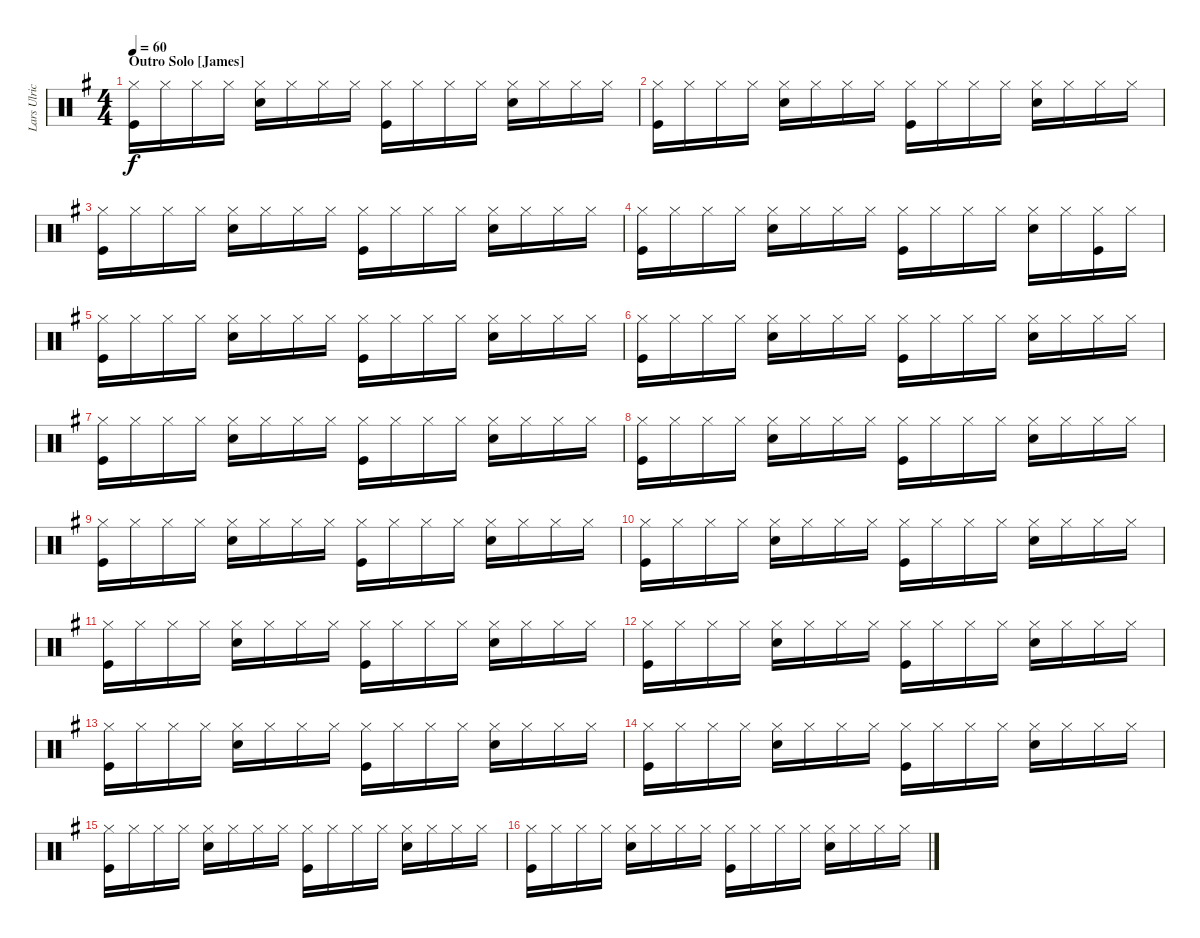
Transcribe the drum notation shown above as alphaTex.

\track ("Lars Ulrich [Drums]" "Lars Ulric") {instrument percussion}
\staff {score}
\articulation defaults
\ts (4 4)
\section ("" "Outro Solo [James]")
\tempo 60
\clef neutral
\ks g
("Kick (hit)" "Hi-Hat (closed)").16{dy f} "Hi-Hat (closed)".16 "Hi-Hat (closed)".16 "Hi-Hat (closed)".16 ("Electric Snare (hit)" "Hi-Hat (closed)").16 "Hi-Hat (closed)".16 "Hi-Hat (closed)".16 "Hi-Hat (closed)".16 ("Kick (hit)" "Hi-Hat (closed)").16 "Hi-Hat (closed)".16 "Hi-Hat (closed)".16 "Hi-Hat (closed)".16 ("Electric Snare (hit)" "Hi-Hat (closed)").16 "Hi-Hat (closed)".16 "Hi-Hat (closed)".16 "Hi-Hat (closed)".16 |
("Kick (hit)" "Hi-Hat (closed)").16 "Hi-Hat (closed)".16 "Hi-Hat (closed)".16 "Hi-Hat (closed)".16 ("Electric Snare (hit)" "Hi-Hat (closed)").16 "Hi-Hat (closed)".16 "Hi-Hat (closed)".16 "Hi-Hat (closed)".16 ("Kick (hit)" "Hi-Hat (closed)").16 "Hi-Hat (closed)".16 "Hi-Hat (closed)".16 "Hi-Hat (closed)".16 ("Electric Snare (hit)" "Hi-Hat (closed)").16 "Hi-Hat (closed)".16 "Hi-Hat (closed)".16 "Hi-Hat (closed)".16 |
("Kick (hit)" "Hi-Hat (closed)").16 "Hi-Hat (closed)".16 "Hi-Hat (closed)".16 "Hi-Hat (closed)".16 ("Electric Snare (hit)" "Hi-Hat (closed)").16 "Hi-Hat (closed)".16 "Hi-Hat (closed)".16 "Hi-Hat (closed)".16 ("Kick (hit)" "Hi-Hat (closed)").16 "Hi-Hat (closed)".16 "Hi-Hat (closed)".16 "Hi-Hat (closed)".16 ("Electric Snare (hit)" "Hi-Hat (closed)").16 "Hi-Hat (closed)".16 "Hi-Hat (closed)".16 "Hi-Hat (closed)".16 |
("Kick (hit)" "Hi-Hat (closed)").16 "Hi-Hat (closed)".16 "Hi-Hat (closed)".16 "Hi-Hat (closed)".16 ("Electric Snare (hit)" "Hi-Hat (closed)").16 "Hi-Hat (closed)".16 "Hi-Hat (closed)".16 "Hi-Hat (closed)".16 ("Kick (hit)" "Hi-Hat (closed)").16 "Hi-Hat (closed)".16 "Hi-Hat (closed)".16 "Hi-Hat (closed)".16 ("Electric Snare (hit)" "Hi-Hat (closed)").16 "Hi-Hat (closed)".16 ("Kick (hit)" "Hi-Hat (closed)").16 "Hi-Hat (closed)".16 |
("Kick (hit)" "Hi-Hat (closed)").16 "Hi-Hat (closed)".16 "Hi-Hat (closed)".16 "Hi-Hat (closed)".16 ("Electric Snare (hit)" "Hi-Hat (closed)").16 "Hi-Hat (closed)".16 "Hi-Hat (closed)".16 "Hi-Hat (closed)".16 ("Kick (hit)" "Hi-Hat (closed)").16 "Hi-Hat (closed)".16 "Hi-Hat (closed)".16 "Hi-Hat (closed)".16 ("Electric Snare (hit)" "Hi-Hat (closed)").16 "Hi-Hat (closed)".16 "Hi-Hat (closed)".16 "Hi-Hat (closed)".16 |
("Kick (hit)" "Hi-Hat (closed)").16 "Hi-Hat (closed)".16 "Hi-Hat (closed)".16 "Hi-Hat (closed)".16 ("Electric Snare (hit)" "Hi-Hat (closed)").16 "Hi-Hat (closed)".16 "Hi-Hat (closed)".16 "Hi-Hat (closed)".16 ("Kick (hit)" "Hi-Hat (closed)").16 "Hi-Hat (closed)".16 "Hi-Hat (closed)".16 "Hi-Hat (closed)".16 ("Electric Snare (hit)" "Hi-Hat (closed)").16 "Hi-Hat (closed)".16 "Hi-Hat (closed)".16 "Hi-Hat (closed)".16 |
("Kick (hit)" "Hi-Hat (closed)").16 "Hi-Hat (closed)".16 "Hi-Hat (closed)".16 "Hi-Hat (closed)".16 ("Electric Snare (hit)" "Hi-Hat (closed)").16 "Hi-Hat (closed)".16 "Hi-Hat (closed)".16 "Hi-Hat (closed)".16 ("Kick (hit)" "Hi-Hat (closed)").16 "Hi-Hat (closed)".16 "Hi-Hat (closed)".16 "Hi-Hat (closed)".16 ("Electric Snare (hit)" "Hi-Hat (closed)").16 "Hi-Hat (closed)".16 "Hi-Hat (closed)".16 "Hi-Hat (closed)".16 |
("Kick (hit)" "Hi-Hat (closed)").16 "Hi-Hat (closed)".16 "Hi-Hat (closed)".16 "Hi-Hat (closed)".16 ("Electric Snare (hit)" "Hi-Hat (closed)").16 "Hi-Hat (closed)".16 "Hi-Hat (closed)".16 "Hi-Hat (closed)".16 ("Kick (hit)" "Hi-Hat (closed)").16 "Hi-Hat (closed)".16 "Hi-Hat (closed)".16 "Hi-Hat (closed)".16 ("Electric Snare (hit)" "Hi-Hat (closed)").16 "Hi-Hat (closed)".16 "Hi-Hat (closed)".16 "Hi-Hat (closed)".16 |
("Kick (hit)" "Hi-Hat (closed)").16 "Hi-Hat (closed)".16 "Hi-Hat (closed)".16 "Hi-Hat (closed)".16 ("Electric Snare (hit)" "Hi-Hat (closed)").16 "Hi-Hat (closed)".16 "Hi-Hat (closed)".16 "Hi-Hat (closed)".16 ("Kick (hit)" "Hi-Hat (closed)").16 "Hi-Hat (closed)".16 "Hi-Hat (closed)".16 "Hi-Hat (closed)".16 ("Electric Snare (hit)" "Hi-Hat (closed)").16 "Hi-Hat (closed)".16 "Hi-Hat (closed)".16 "Hi-Hat (closed)".16 |
("Kick (hit)" "Hi-Hat (closed)").16 "Hi-Hat (closed)".16 "Hi-Hat (closed)".16 "Hi-Hat (closed)".16 ("Electric Snare (hit)" "Hi-Hat (closed)").16 "Hi-Hat (closed)".16 "Hi-Hat (closed)".16 "Hi-Hat (closed)".16 ("Kick (hit)" "Hi-Hat (closed)").16 "Hi-Hat (closed)".16 "Hi-Hat (closed)".16 "Hi-Hat (closed)".16 ("Electric Snare (hit)" "Hi-Hat (closed)").16 "Hi-Hat (closed)".16 "Hi-Hat (closed)".16 "Hi-Hat (closed)".16 |
("Kick (hit)" "Hi-Hat (closed)").16 "Hi-Hat (closed)".16 "Hi-Hat (closed)".16 "Hi-Hat (closed)".16 ("Electric Snare (hit)" "Hi-Hat (closed)").16 "Hi-Hat (closed)".16 "Hi-Hat (closed)".16 "Hi-Hat (closed)".16 ("Kick (hit)" "Hi-Hat (closed)").16 "Hi-Hat (closed)".16 "Hi-Hat (closed)".16 "Hi-Hat (closed)".16 ("Electric Snare (hit)" "Hi-Hat (closed)").16 "Hi-Hat (closed)".16 "Hi-Hat (closed)".16 "Hi-Hat (closed)".16 |
("Kick (hit)" "Hi-Hat (closed)").16 "Hi-Hat (closed)".16 "Hi-Hat (closed)".16 "Hi-Hat (closed)".16 ("Electric Snare (hit)" "Hi-Hat (closed)").16 "Hi-Hat (closed)".16 "Hi-Hat (closed)".16 "Hi-Hat (closed)".16 ("Kick (hit)" "Hi-Hat (closed)").16 "Hi-Hat (closed)".16 "Hi-Hat (closed)".16 "Hi-Hat (closed)".16 ("Electric Snare (hit)" "Hi-Hat (closed)").16 "Hi-Hat (closed)".16 "Hi-Hat (closed)".16 "Hi-Hat (closed)".16 |
("Kick (hit)" "Hi-Hat (closed)").16 "Hi-Hat (closed)".16 "Hi-Hat (closed)".16 "Hi-Hat (closed)".16 ("Electric Snare (hit)" "Hi-Hat (closed)").16 "Hi-Hat (closed)".16 "Hi-Hat (closed)".16 "Hi-Hat (closed)".16 ("Kick (hit)" "Hi-Hat (closed)").16 "Hi-Hat (closed)".16 "Hi-Hat (closed)".16 "Hi-Hat (closed)".16 ("Electric Snare (hit)" "Hi-Hat (closed)").16 "Hi-Hat (closed)".16 "Hi-Hat (closed)".16 "Hi-Hat (closed)".16 |
("Kick (hit)" "Hi-Hat (closed)").16 "Hi-Hat (closed)".16 "Hi-Hat (closed)".16 "Hi-Hat (closed)".16 ("Electric Snare (hit)" "Hi-Hat (closed)").16 "Hi-Hat (closed)".16 "Hi-Hat (closed)".16 "Hi-Hat (closed)".16 ("Kick (hit)" "Hi-Hat (closed)").16 "Hi-Hat (closed)".16 "Hi-Hat (closed)".16 "Hi-Hat (closed)".16 ("Electric Snare (hit)" "Hi-Hat (closed)").16 "Hi-Hat (closed)".16 "Hi-Hat (closed)".16 "Hi-Hat (closed)".16 |
("Kick (hit)" "Hi-Hat (closed)").16 "Hi-Hat (closed)".16 "Hi-Hat (closed)".16 "Hi-Hat (closed)".16 ("Electric Snare (hit)" "Hi-Hat (closed)").16 "Hi-Hat (closed)".16 "Hi-Hat (closed)".16 "Hi-Hat (closed)".16 ("Kick (hit)" "Hi-Hat (closed)").16 "Hi-Hat (closed)".16 "Hi-Hat (closed)".16 "Hi-Hat (closed)".16 ("Electric Snare (hit)" "Hi-Hat (closed)").16 "Hi-Hat (closed)".16 "Hi-Hat (closed)".16 "Hi-Hat (closed)".16 |
("Kick (hit)" "Hi-Hat (closed)").16 "Hi-Hat (closed)".16 "Hi-Hat (closed)".16 "Hi-Hat (closed)".16 ("Electric Snare (hit)" "Hi-Hat (closed)").16 "Hi-Hat (closed)".16 "Hi-Hat (closed)".16 "Hi-Hat (closed)".16 ("Kick (hit)" "Hi-Hat (closed)").16 "Hi-Hat (closed)".16 "Hi-Hat (closed)".16 "Hi-Hat (closed)".16 ("Electric Snare (hit)" "Hi-Hat (closed)").16 "Hi-Hat (closed)".16 "Hi-Hat (closed)".16 "Hi-Hat (closed)".16
